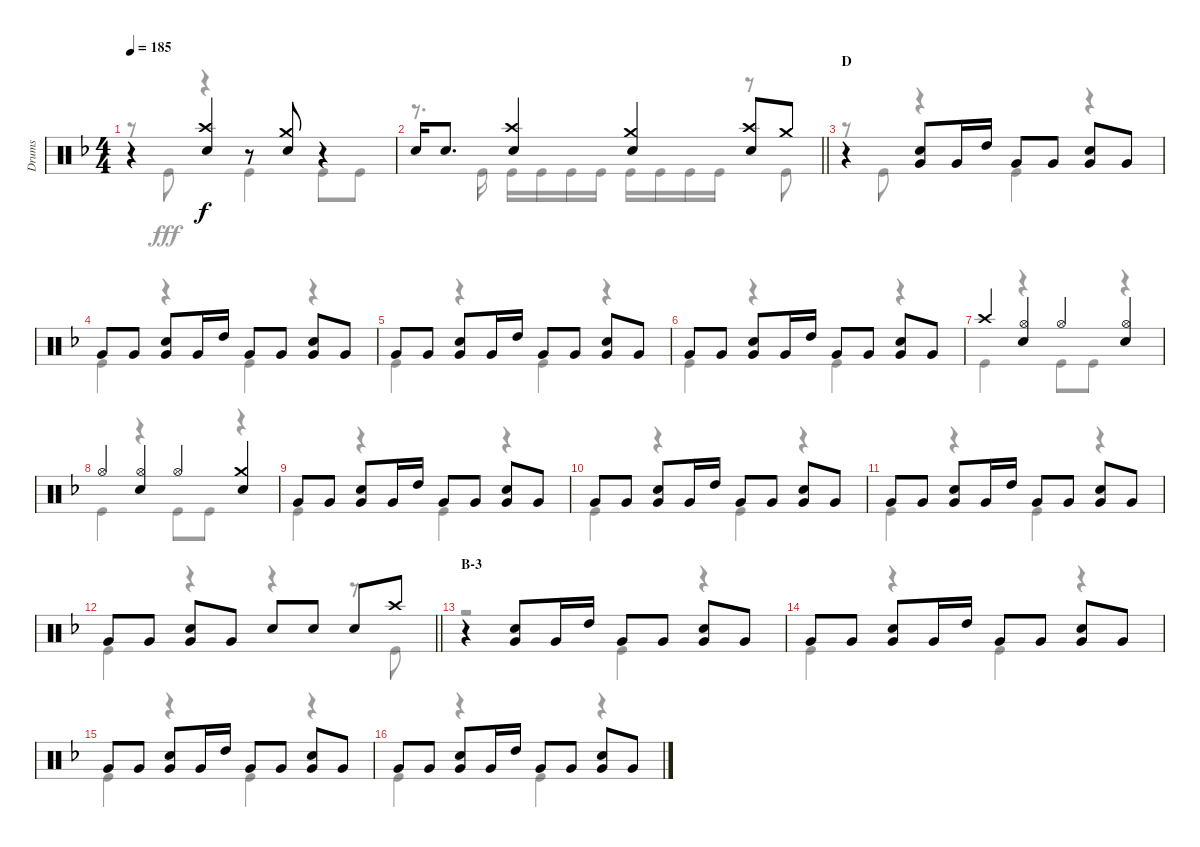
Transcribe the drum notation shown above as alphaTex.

\track ("Drums" "Drums") {instrument percussion}
\staff {score}
\articulation defaults
\voice
\ts (4 4)
\tempo 185
\clef neutral
\ks f
r.4{dy f} ("Crash high (hit)" "Snare (hit) 2").4 r.8 ("Crash medium (hit)" "Snare (hit) 2").8 r.4 |
\barLineRight lightlight "Snare (hit) 2".16 "Snare (hit) 2".8{d}
("Crash high (hit)" "Snare (hit) 2").4 ("Crash medium (hit)" "Snare (hit) 2").4 ("Crash high (hit)" "Snare (hit) 2").8 "Crash medium (hit)".8 |
\section ("" "D")
r.4 ("Snare (hit) 2" "Very Low Tom (hit)").8 "Very Low Tom (hit)".16 "High Tom (hit)".16 "Very Low Tom (hit)".8 "Very Low Tom (hit)".8 ("Snare (hit) 2" "Very Low Tom (hit)").8 "Very Low Tom (hit)".8 |
"Very Low Tom (hit)".8 "Very Low Tom (hit)".8 ("Snare (hit) 2" "Very Low Tom (hit)").8 "Very Low Tom (hit)".16 "High Tom (hit)".16 "Very Low Tom (hit)".8 "Very Low Tom (hit)".8 ("Snare (hit) 2" "Very Low Tom (hit)").8 "Very Low Tom (hit)".8 |
"Very Low Tom (hit)".8 "Very Low Tom (hit)".8 ("Snare (hit) 2" "Very Low Tom (hit)").8 "Very Low Tom (hit)".16 "High Tom (hit)".16 "Very Low Tom (hit)".8 "Very Low Tom (hit)".8 ("Snare (hit) 2" "Very Low Tom (hit)").8 "Very Low Tom (hit)".8 |
"Very Low Tom (hit)".8 "Very Low Tom (hit)".8 ("Snare (hit) 2" "Very Low Tom (hit)").8 "Very Low Tom (hit)".16 "High Tom (hit)".16 "Very Low Tom (hit)".8 "Very Low Tom (hit)".8 ("Snare (hit) 2" "Very Low Tom (hit)").8 "Very Low Tom (hit)".8 |
"Crash high (hit)".4 ("Hi-Hat (open)" "Snare (hit) 2").4 "Hi-Hat (open)".4 ("Hi-Hat (open)" "Snare (hit) 2").4 |
"Hi-Hat (open)".4 ("Hi-Hat (open)" "Snare (hit) 2").4 "Hi-Hat (open)".4 ("Crash medium (hit)" "Snare (hit) 2").4 |
"Very Low Tom (hit)".8 "Very Low Tom (hit)".8 ("Snare (hit) 2" "Very Low Tom (hit)").8 "Very Low Tom (hit)".16 "High Tom (hit)".16 "Very Low Tom (hit)".8 "Very Low Tom (hit)".8 ("Snare (hit) 2" "Very Low Tom (hit)").8 "Very Low Tom (hit)".8 |
"Very Low Tom (hit)".8 "Very Low Tom (hit)".8 ("Snare (hit) 2" "Very Low Tom (hit)").8 "Very Low Tom (hit)".16 "High Tom (hit)".16 "Very Low Tom (hit)".8 "Very Low Tom (hit)".8 ("Snare (hit) 2" "Very Low Tom (hit)").8 "Very Low Tom (hit)".8 |
"Very Low Tom (hit)".8 "Very Low Tom (hit)".8 ("Snare (hit) 2" "Very Low Tom (hit)").8 "Very Low Tom (hit)".16 "High Tom (hit)".16 "Very Low Tom (hit)".8 "Very Low Tom (hit)".8 ("Snare (hit) 2" "Very Low Tom (hit)").8 "Very Low Tom (hit)".8 |
\barLineRight lightlight "Very Low Tom (hit)".8 "Very Low Tom (hit)".8
("Snare (hit) 2" "Very Low Tom (hit)").8 "Very Low Tom (hit)".8 "Snare (hit) 2".8 "Snare (hit) 2".8 "Snare (hit) 2".8 "Crash high (hit)".8 |
\section ("" "B-3")
r.4 ("Snare (hit) 2" "Very Low Tom (hit)").8 "Very Low Tom (hit)".16 "High Tom (hit)".16 "Very Low Tom (hit)".8 "Very Low Tom (hit)".8 ("Snare (hit) 2" "Very Low Tom (hit)").8 "Very Low Tom (hit)".8 |
"Very Low Tom (hit)".8 "Very Low Tom (hit)".8 ("Snare (hit) 2" "Very Low Tom (hit)").8 "Very Low Tom (hit)".16 "High Tom (hit)".16 "Very Low Tom (hit)".8 "Very Low Tom (hit)".8 ("Snare (hit) 2" "Very Low Tom (hit)").8 "Very Low Tom (hit)".8 |
"Very Low Tom (hit)".8 "Very Low Tom (hit)".8 ("Snare (hit) 2" "Very Low Tom (hit)").8 "Very Low Tom (hit)".16 "High Tom (hit)".16 "Very Low Tom (hit)".8 "Very Low Tom (hit)".8 ("Snare (hit) 2" "Very Low Tom (hit)").8 "Very Low Tom (hit)".8 |
"Very Low Tom (hit)".8 "Very Low Tom (hit)".8 ("Snare (hit) 2" "Very Low Tom (hit)").8 "Very Low Tom (hit)".16 "High Tom (hit)".16 "Very Low Tom (hit)".8 "Very Low Tom (hit)".8 ("Snare (hit) 2" "Very Low Tom (hit)").8 "Very Low Tom (hit)".8
\voice
\clef neutral
\ottava regular
\simile none
\ks f
r.8{dy fff} "Kick (hit)".8 r.4 "Kick (hit)".4 "Kick (hit)".8 "Kick (hit)".8 |
\barLineRight lightlight
r.8{d} "Kick (hit)".16 "Kick (hit)".16 "Kick (hit)".16 "Kick (hit)".16 "Kick (hit)".16 "Kick (hit)".16 "Kick (hit)".16 "Kick (hit)".16 "Kick (hit)".16 r.8 "Kick (hit)".8 |
r.8 "Kick (hit)".8 r.4 "Kick (hit)".4 r.4 |
"Kick (hit)".4 r.4 "Kick (hit)".4 r.4 |
"Kick (hit)".4 r.4 "Kick (hit)".4 r.4 |
"Kick (hit)".4 r.4 "Kick (hit)".4 r.4 |
"Kick (hit)".4 r.4 "Kick (hit)".8 "Kick (hit)".8 r.4 |
"Kick (hit)".4 r.4 "Kick (hit)".8 "Kick (hit)".8 r.4 |
"Kick (hit)".4 r.4 "Kick (hit)".4 r.4 |
"Kick (hit)".4 r.4 "Kick (hit)".4 r.4 |
"Kick (hit)".4 r.4 "Kick (hit)".4 r.4 |
\barLineRight lightlight "Kick (hit)".4
r.4 r.4 r.8 "Kick (hit)".8 |
r.2 "Kick (hit)".4 r.4 |
"Kick (hit)".4 r.4 "Kick (hit)".4 r.4 |
"Kick (hit)".4 r.4 "Kick (hit)".4 r.4 |
"Kick (hit)".4 r.4 "Kick (hit)".4 r.4
